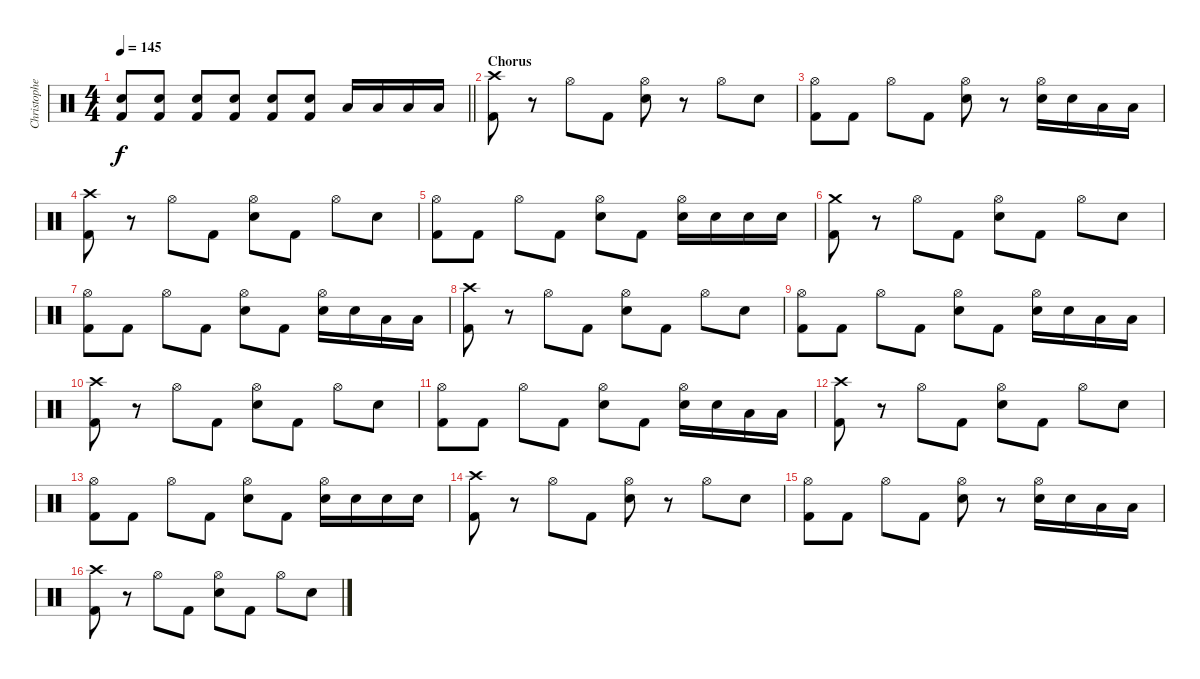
\track ("Christopher - Drums" "Christophe") {instrument percussion}
\staff {score}
\articulation defaults
\ts (4 4)
\tempo 145
\clef neutral
\barLineRight lightlight
\ks c
("Electric Snare (hit)" "Kick (hit) 2").8{dy f} ("Electric Snare (hit)" "Kick (hit) 2").8 ("Electric Snare (hit)" "Kick (hit) 2").8 ("Electric Snare (hit)" "Kick (hit) 2").8 ("Electric Snare (hit)" "Kick (hit) 2").8 ("Electric Snare (hit)" "Kick (hit) 2").8 "Low Tom (hit)".16 "Low Tom (hit)".16 "Low Tom (hit)".16 "Low Tom (hit)".16 |
\section ("" "Chorus")
("Crash high (hit)" "Kick (hit) 2").8 r.8 "Hi-Hat (open)".8 "Kick (hit) 2".8 ("Hi-Hat (open)" "Electric Snare (hit)").8 r.8 "Hi-Hat (open)".8 "Electric Snare (hit)".8 |
("Hi-Hat (open)" "Kick (hit) 2").8 "Kick (hit) 2".8 "Hi-Hat (open)".8 "Kick (hit) 2".8 ("Hi-Hat (open)" "Electric Snare (hit)").8 r.8 ("Hi-Hat (open)" "Electric Snare (hit)").16 "Electric Snare (hit)".16 "Low Tom (hit)".16 "Low Tom (hit)".16 |
("Crash high (hit)" "Kick (hit) 2").8 r.8 "Hi-Hat (open)".8 "Kick (hit) 2".8 ("Hi-Hat (open)" "Electric Snare (hit)").8 "Kick (hit) 2".8 "Hi-Hat (open)".8 "Electric Snare (hit)".8 |
("Hi-Hat (open)" "Kick (hit) 2").8 "Kick (hit) 2".8 "Hi-Hat (open)".8 "Kick (hit) 2".8 ("Hi-Hat (open)" "Electric Snare (hit)").8 "Kick (hit) 2".8 ("Hi-Hat (open)" "Electric Snare (hit)").16 "Electric Snare (hit)".16 "Electric Snare (hit)".16 "Electric Snare (hit)".16 |
("Crash medium (hit)" "Kick (hit) 2").8 r.8 "Hi-Hat (open)".8 "Kick (hit) 2".8 ("Hi-Hat (open)" "Electric Snare (hit)").8 "Kick (hit) 2".8 "Hi-Hat (open)".8 "Electric Snare (hit)".8 |
("Hi-Hat (open)" "Kick (hit) 2").8 "Kick (hit) 2".8 "Hi-Hat (open)".8 "Kick (hit) 2".8 ("Hi-Hat (open)" "Electric Snare (hit)").8 "Kick (hit) 2".8 ("Hi-Hat (open)" "Electric Snare (hit)").16 "Electric Snare (hit)".16 "Low Tom (hit)".16 "Low Tom (hit)".16 |
("Crash high (hit)" "Kick (hit) 2").8 r.8 "Hi-Hat (open)".8 "Kick (hit) 2".8 ("Hi-Hat (open)" "Electric Snare (hit)").8 "Kick (hit) 2".8 "Hi-Hat (open)".8 "Electric Snare (hit)".8 |
("Hi-Hat (open)" "Kick (hit) 2").8 "Kick (hit) 2".8 "Hi-Hat (open)".8 "Kick (hit) 2".8 ("Hi-Hat (open)" "Electric Snare (hit)").8 "Kick (hit) 2".8 ("Hi-Hat (open)" "Electric Snare (hit)").16 "Electric Snare (hit)".16 "Low Tom (hit)".16 "Low Tom (hit)".16 |
("Crash high (hit)" "Kick (hit) 2").8 r.8 "Hi-Hat (open)".8 "Kick (hit) 2".8 ("Hi-Hat (open)" "Electric Snare (hit)").8 "Kick (hit) 2".8 "Hi-Hat (open)".8 "Electric Snare (hit)".8 |
("Hi-Hat (open)" "Kick (hit) 2").8 "Kick (hit) 2".8 "Hi-Hat (open)".8 "Kick (hit) 2".8 ("Hi-Hat (open)" "Electric Snare (hit)").8 "Kick (hit) 2".8 ("Hi-Hat (open)" "Electric Snare (hit)").16 "Electric Snare (hit)".16 "Low Tom (hit)".16 "Low Tom (hit)".16 |
("Crash high (hit)" "Kick (hit) 2").8 r.8 "Hi-Hat (open)".8 "Kick (hit) 2".8 ("Hi-Hat (open)" "Electric Snare (hit)").8 "Kick (hit) 2".8 "Hi-Hat (open)".8 "Electric Snare (hit)".8 |
("Hi-Hat (open)" "Kick (hit) 2").8 "Kick (hit) 2".8 "Hi-Hat (open)".8 "Kick (hit) 2".8 ("Hi-Hat (open)" "Electric Snare (hit)").8 "Kick (hit) 2".8 ("Hi-Hat (open)" "Electric Snare (hit)").16 "Electric Snare (hit)".16 "Electric Snare (hit)".16 "Electric Snare (hit)".16 |
("Crash high (hit)" "Kick (hit) 2").8 r.8 "Hi-Hat (open)".8 "Kick (hit) 2".8 ("Hi-Hat (open)" "Electric Snare (hit)").8 r.8 "Hi-Hat (open)".8 "Electric Snare (hit)".8 |
("Hi-Hat (open)" "Kick (hit) 2").8 "Kick (hit) 2".8 "Hi-Hat (open)".8 "Kick (hit) 2".8 ("Hi-Hat (open)" "Electric Snare (hit)").8 r.8 ("Hi-Hat (open)" "Electric Snare (hit)").16 "Electric Snare (hit)".16 "Low Tom (hit)".16 "Low Tom (hit)".16 |
("Crash high (hit)" "Kick (hit) 2").8 r.8 "Hi-Hat (open)".8 "Kick (hit) 2".8 ("Hi-Hat (open)" "Electric Snare (hit)").8 "Kick (hit) 2".8 "Hi-Hat (open)".8 "Electric Snare (hit)".8
